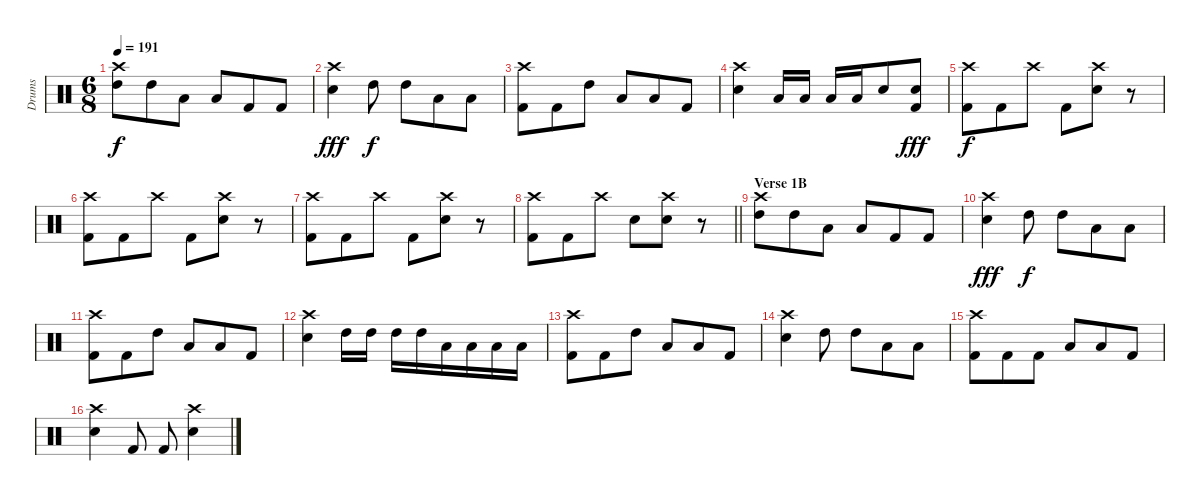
\track ("Drums" "Drums") {instrument percussion}
\staff {score}
\articulation defaults
\ts (6 8)
\tempo 191
\clef neutral
\ks c
("Crash high (hit)" "High Tom (hit)").8{dy f} "High Tom (hit)".8 "Low Tom (hit)".8 "Low Floor Tom (hit)".8 "Kick (hit) 2".8 "Kick (hit) 2".8 |
("Crash high (hit)" "Snare (hit) 2").4{dy fff} "High Tom (hit)".8{dy f} "High Tom (hit)".8 "Low Tom (hit)".8 "Low Tom (hit)".8 |
("Crash high (hit)" "Kick (hit) 2").8 "Kick (hit) 2".8 "High Tom (hit)".8 "Low Tom (hit)".8 "Low Floor Tom (hit)".8 "Kick (hit) 2".8 |
("Crash high (hit)" "Snare (hit) 2").4 "Low Tom (hit)".16 "Low Tom (hit)".16 "Low Floor Tom (hit)".16 "Low Floor Tom (hit)".16 "Snare (hit) 2".8 ("Snare (hit) 2" "Kick (hit) 2").8{dy fff} |
("Crash high (hit)" "Kick (hit) 2").8{dy f} "Kick (hit) 2".8 "Crash high (hit)".8 "Kick (hit) 2".8 ("Crash high (hit)" "Snare (hit) 2").8 r.8 |
("Crash high (hit)" "Kick (hit) 2").8 "Kick (hit) 2".8 "Crash high (hit)".8 "Kick (hit) 2".8 ("Crash high (hit)" "Snare (hit) 2").8 r.8 |
("Crash high (hit)" "Kick (hit) 2").8 "Kick (hit) 2".8 "Crash high (hit)".8 "Kick (hit) 2".8 ("Crash high (hit)" "Snare (hit) 2").8 r.8 |
\barLineRight lightlight
("Crash high (hit)" "Kick (hit) 2").8 "Kick (hit) 2".8 "Crash high (hit)".8 "Snare (hit) 2".8 ("Crash high (hit)" "Snare (hit) 2").8 r.8 |
\section ("" "Verse 1B")
("Crash high (hit)" "High Tom (hit)").8 "High Tom (hit)".8 "Low Tom (hit)".8 "Low Floor Tom (hit)".8 "Kick (hit) 2".8 "Kick (hit) 2".8 |
("Crash high (hit)" "Snare (hit) 2").4{dy fff} "High Tom (hit)".8{dy f} "High Tom (hit)".8 "Low Tom (hit)".8 "Low Tom (hit)".8 |
("Crash high (hit)" "Kick (hit) 2").8 "Kick (hit) 2".8 "High Tom (hit)".8 "Low Tom (hit)".8 "Low Floor Tom (hit)".8 "Kick (hit) 2".8 |
("Crash high (hit)" "Snare (hit) 2").4 "High Tom (hit)".16 "High Tom (hit)".16 "High Tom (hit)".16 "High Tom (hit)".16 "Low Tom (hit)".16 "Low Tom (hit)".16 "Low Tom (hit)".16 "Low Tom (hit)".16 |
("Crash high (hit)" "Kick (hit) 2").8 "Kick (hit) 2".8 "High Tom (hit)".8 "Low Tom (hit)".8 "Low Floor Tom (hit)".8 "Kick (hit) 2".8 |
("Crash high (hit)" "Snare (hit) 2").4 "High Tom (hit)".8 "High Tom (hit)".8 "Low Tom (hit)".8 "Low Floor Tom (hit)".8 |
("Crash high (hit)" "Kick (hit) 2").8 "Kick (hit) 2".8 "Kick (hit) 2".8 "Low Tom (hit)".8 "Low Floor Tom (hit)".8 "Kick (hit) 2".8 |
("Crash high (hit)" "Snare (hit) 2").4 "Kick (hit) 2".8 "Kick (hit) 2".8 ("Crash high (hit)" "Snare (hit) 2").4
